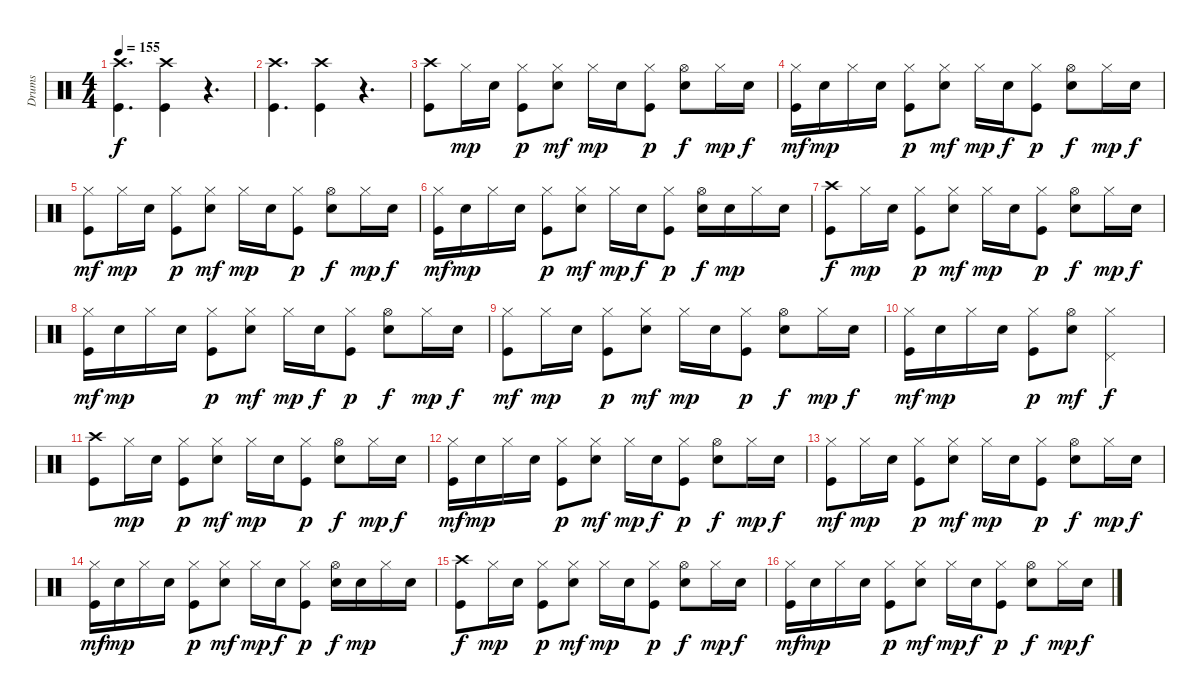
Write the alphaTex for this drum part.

\track ("Drums" "Drums") {instrument percussion}
\staff {score}
\articulation defaults
\ts (4 4)
\tempo 155
\clef neutral
\ks c
("Crash high (hit)" "Kick (hit)").4{d dy f} ("Crash high (hit)" "Kick (hit)").4 r.4{d} |
("Crash high (hit)" "Kick (hit)").4{d} ("Crash high (hit)" "Kick (hit)").4 r.4{d} |
("Crash high (hit)" "Kick (hit)").8 "Hi-Hat (closed)".16{dy mp} "Snare (hit) 2".16 ("Kick (hit)" "Hi-Hat (closed)").8{dy p} ("Snare (hit) 2" "Hi-Hat (closed)").8{dy mf} "Hi-Hat (closed)".16{dy mp} "Snare (hit) 2".16 ("Hi-Hat (closed)" "Kick (hit)").8{dy p} ("Snare (hit) 2" "Hi-Hat (open)").8{dy f} "Hi-Hat (closed)".16{dy mp} "Snare (hit) 2".16{dy f} |
("Hi-Hat (closed)" "Kick (hit)").16{dy mf} "Snare (hit) 2".16{dy mp} "Hi-Hat (closed)".16 "Snare (hit) 2".16 ("Kick (hit)" "Hi-Hat (closed)").8{dy p} ("Snare (hit) 2" "Hi-Hat (closed)").8{dy mf} "Hi-Hat (closed)".16{dy mp} "Snare (hit) 2".16{dy f} ("Hi-Hat (closed)" "Kick (hit)").8{dy p} ("Snare (hit) 2" "Hi-Hat (open)").8{dy f} "Hi-Hat (closed)".16{dy mp} "Snare (hit) 2".16{dy f} |
("Hi-Hat (closed)" "Kick (hit)").8{dy mf} "Hi-Hat (closed)".16{dy mp} "Snare (hit) 2".16 ("Kick (hit)" "Hi-Hat (closed)").8{dy p} ("Snare (hit) 2" "Hi-Hat (closed)").8{dy mf} "Hi-Hat (closed)".16{dy mp} "Snare (hit) 2".16 ("Hi-Hat (closed)" "Kick (hit)").8{dy p} ("Snare (hit) 2" "Hi-Hat (open)").8{dy f} "Hi-Hat (closed)".16{dy mp} "Snare (hit) 2".16{dy f} |
("Hi-Hat (closed)" "Kick (hit)").16{dy mf} "Snare (hit) 2".16{dy mp} "Hi-Hat (closed)".16 "Snare (hit) 2".16 ("Kick (hit)" "Hi-Hat (closed)").8{dy p} ("Snare (hit) 2" "Hi-Hat (closed)").8{dy mf} "Hi-Hat (closed)".16{dy mp} "Snare (hit) 2".16{dy f} ("Hi-Hat (closed)" "Kick (hit)").8{dy p} ("Snare (hit) 2" "Hi-Hat (open)").16{dy f} "Snare (hit) 2".16{dy mp} "Hi-Hat (closed)".16 "Snare (hit) 2".16 |
("Crash high (hit)" "Kick (hit)").8{dy f} "Hi-Hat (closed)".16{dy mp} "Snare (hit) 2".16 ("Kick (hit)" "Hi-Hat (closed)").8{dy p} ("Snare (hit) 2" "Hi-Hat (closed)").8{dy mf} "Hi-Hat (closed)".16{dy mp} "Snare (hit) 2".16 ("Hi-Hat (closed)" "Kick (hit)").8{dy p} ("Snare (hit) 2" "Hi-Hat (open)").8{dy f} "Hi-Hat (closed)".16{dy mp} "Snare (hit) 2".16{dy f} |
("Hi-Hat (closed)" "Kick (hit)").16{dy mf} "Snare (hit) 2".16{dy mp} "Hi-Hat (closed)".16 "Snare (hit) 2".16 ("Kick (hit)" "Hi-Hat (closed)").8{dy p} ("Snare (hit) 2" "Hi-Hat (closed)").8{dy mf} "Hi-Hat (closed)".16{dy mp} "Snare (hit) 2".16{dy f} ("Hi-Hat (closed)" "Kick (hit)").8{dy p} ("Snare (hit) 2" "Hi-Hat (open)").8{dy f} "Hi-Hat (closed)".16{dy mp} "Snare (hit) 2".16{dy f} |
("Hi-Hat (closed)" "Kick (hit)").8{dy mf} "Hi-Hat (closed)".16{dy mp} "Snare (hit) 2".16 ("Kick (hit)" "Hi-Hat (closed)").8{dy p} ("Snare (hit) 2" "Hi-Hat (closed)").8{dy mf} "Hi-Hat (closed)".16{dy mp} "Snare (hit) 2".16 ("Hi-Hat (closed)" "Kick (hit)").8{dy p} ("Snare (hit) 2" "Hi-Hat (open)").8{dy f} "Hi-Hat (closed)".16{dy mp} "Snare (hit) 2".16{dy f} |
("Hi-Hat (closed)" "Kick (hit)").16{dy mf} "Snare (hit) 2".16{dy mp} "Hi-Hat (closed)".16 "Snare (hit) 2".16 ("Kick (hit)" "Hi-Hat (closed)").8{dy p} ("Snare (hit) 2" "Hi-Hat (open)").8{dy mf} ("Hi-Hat (closed)" "Pedal Hi-Hat (hit)").2{dy f} |
("Crash high (hit)" "Kick (hit)").8 "Hi-Hat (closed)".16{dy mp} "Snare (hit) 2".16 ("Kick (hit)" "Hi-Hat (closed)").8{dy p} ("Snare (hit) 2" "Hi-Hat (closed)").8{dy mf} "Hi-Hat (closed)".16{dy mp} "Snare (hit) 2".16 ("Hi-Hat (closed)" "Kick (hit)").8{dy p} ("Snare (hit) 2" "Hi-Hat (open)").8{dy f} "Hi-Hat (closed)".16{dy mp} "Snare (hit) 2".16{dy f} |
("Hi-Hat (closed)" "Kick (hit)").16{dy mf} "Snare (hit) 2".16{dy mp} "Hi-Hat (closed)".16 "Snare (hit) 2".16 ("Kick (hit)" "Hi-Hat (closed)").8{dy p} ("Snare (hit) 2" "Hi-Hat (closed)").8{dy mf} "Hi-Hat (closed)".16{dy mp} "Snare (hit) 2".16{dy f} ("Hi-Hat (closed)" "Kick (hit)").8{dy p} ("Snare (hit) 2" "Hi-Hat (open)").8{dy f} "Hi-Hat (closed)".16{dy mp} "Snare (hit) 2".16{dy f} |
("Hi-Hat (closed)" "Kick (hit)").8{dy mf} "Hi-Hat (closed)".16{dy mp} "Snare (hit) 2".16 ("Kick (hit)" "Hi-Hat (closed)").8{dy p} ("Snare (hit) 2" "Hi-Hat (closed)").8{dy mf} "Hi-Hat (closed)".16{dy mp} "Snare (hit) 2".16 ("Hi-Hat (closed)" "Kick (hit)").8{dy p} ("Snare (hit) 2" "Hi-Hat (open)").8{dy f} "Hi-Hat (closed)".16{dy mp} "Snare (hit) 2".16{dy f} |
("Hi-Hat (closed)" "Kick (hit)").16{dy mf} "Snare (hit) 2".16{dy mp} "Hi-Hat (closed)".16 "Snare (hit) 2".16 ("Kick (hit)" "Hi-Hat (closed)").8{dy p} ("Snare (hit) 2" "Hi-Hat (closed)").8{dy mf} "Hi-Hat (closed)".16{dy mp} "Snare (hit) 2".16{dy f} ("Hi-Hat (closed)" "Kick (hit)").8{dy p} ("Snare (hit) 2" "Hi-Hat (open)").16{dy f} "Snare (hit) 2".16{dy mp} "Hi-Hat (closed)".16 "Snare (hit) 2".16 |
("Crash high (hit)" "Kick (hit)").8{dy f} "Hi-Hat (closed)".16{dy mp} "Snare (hit) 2".16 ("Kick (hit)" "Hi-Hat (closed)").8{dy p} ("Snare (hit) 2" "Hi-Hat (closed)").8{dy mf} "Hi-Hat (closed)".16{dy mp} "Snare (hit) 2".16 ("Hi-Hat (closed)" "Kick (hit)").8{dy p} ("Snare (hit) 2" "Hi-Hat (open)").8{dy f} "Hi-Hat (closed)".16{dy mp} "Snare (hit) 2".16{dy f} |
("Hi-Hat (closed)" "Kick (hit)").16{dy mf} "Snare (hit) 2".16{dy mp} "Hi-Hat (closed)".16 "Snare (hit) 2".16 ("Kick (hit)" "Hi-Hat (closed)").8{dy p} ("Snare (hit) 2" "Hi-Hat (closed)").8{dy mf} "Hi-Hat (closed)".16{dy mp} "Snare (hit) 2".16{dy f} ("Hi-Hat (closed)" "Kick (hit)").8{dy p} ("Snare (hit) 2" "Hi-Hat (open)").8{dy f} "Hi-Hat (closed)".16{dy mp} "Snare (hit) 2".16{dy f}
